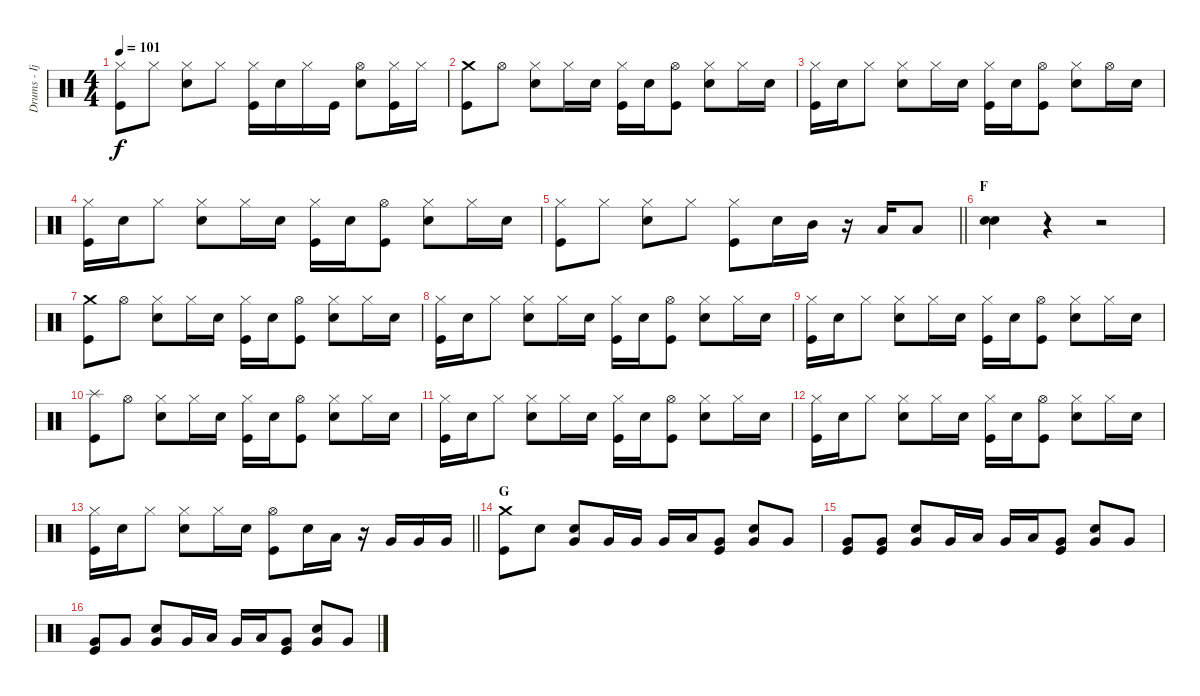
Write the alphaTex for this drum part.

\track ("Drums - Ijichi" "Drums - Ij") {instrument percussion}
\staff {score}
\articulation defaults
\ts (4 4)
\tempo 101
\clef neutral
\ks c
("Hi-Hat (closed)" "Kick (hit)").8{dy f} "Hi-Hat (closed)".8 ("Hi-Hat (closed)" "Electric Snare (hit)").8 "Hi-Hat (closed)".8 ("Hi-Hat (closed)" "Kick (hit)").16 "Electric Snare (hit)".16 "Hi-Hat (closed)".16 "Kick (hit)".16 ("Hi-Hat (open)" "Electric Snare (hit)").8 ("Hi-Hat (closed)" "Kick (hit)").16 "Hi-Hat (closed)".16 |
("Crash medium (hit)" "Kick (hit)").8 "Hi-Hat (open)".8 ("Hi-Hat (closed)" "Electric Snare (hit)").8 "Hi-Hat (closed)".16 "Electric Snare (hit)".16 ("Hi-Hat (closed)" "Kick (hit)").16 "Electric Snare (hit)".16 ("Hi-Hat (open)" "Kick (hit)").8 ("Hi-Hat (closed)" "Electric Snare (hit)").8 "Hi-Hat (closed)".16 "Electric Snare (hit)".16 |
("Hi-Hat (closed)" "Kick (hit)").16 "Electric Snare (hit)".16 "Hi-Hat (closed)".8 ("Hi-Hat (closed)" "Electric Snare (hit)").8 "Hi-Hat (closed)".16 "Electric Snare (hit)".16 ("Hi-Hat (closed)" "Kick (hit)").16 "Electric Snare (hit)".16 ("Hi-Hat (open)" "Kick (hit)").8 ("Hi-Hat (closed)" "Electric Snare (hit)").8 "Hi-Hat (open)".16 "Electric Snare (hit)".16 |
("Hi-Hat (closed)" "Kick (hit)").16 "Electric Snare (hit)".16 "Hi-Hat (closed)".8 ("Hi-Hat (closed)" "Electric Snare (hit)").8 "Hi-Hat (closed)".16 "Electric Snare (hit)".16 ("Hi-Hat (closed)" "Kick (hit)").16 "Electric Snare (hit)".16 ("Hi-Hat (open)" "Kick (hit)").8 ("Hi-Hat (closed)" "Electric Snare (hit)").8 "Hi-Hat (closed)".16 "Electric Snare (hit)".16 |
\barLineRight lightlight
("Hi-Hat (closed)" "Kick (hit)").8 "Hi-Hat (closed)".8 ("Hi-Hat (closed)" "Electric Snare (hit)").8 "Hi-Hat (closed)".8 ("Hi-Hat (closed)" "Kick (hit)").8 "Electric Snare (hit)".16 "Mid Tom (hit)".16 r.16 "Low Tom (hit)".16 "Low Tom (hit)".8 |
\section ("" "F")
("Electric Snare (hit)" "Electric Snare (hit)").4 r.4 r.2 |
("Crash medium (hit)" "Kick (hit)").8 "Hi-Hat (open)".8 ("Hi-Hat (closed)" "Electric Snare (hit)").8 "Hi-Hat (closed)".16 "Electric Snare (hit)".16 ("Hi-Hat (closed)" "Kick (hit)").16 "Electric Snare (hit)".16 ("Hi-Hat (open)" "Kick (hit)").8 ("Hi-Hat (closed)" "Electric Snare (hit)").8 "Hi-Hat (closed)".16 "Electric Snare (hit)".16 |
("Hi-Hat (closed)" "Kick (hit)").16 "Electric Snare (hit)".16 "Hi-Hat (closed)".8 ("Hi-Hat (closed)" "Electric Snare (hit)").8 "Hi-Hat (closed)".16 "Electric Snare (hit)".16 ("Hi-Hat (closed)" "Kick (hit)").16 "Electric Snare (hit)".16 ("Hi-Hat (open)" "Kick (hit)").8 ("Hi-Hat (closed)" "Electric Snare (hit)").8 "Hi-Hat (closed)".16 "Electric Snare (hit)".16 |
("Hi-Hat (closed)" "Kick (hit)").16 "Electric Snare (hit)".16 "Hi-Hat (closed)".8 ("Hi-Hat (closed)" "Electric Snare (hit)").8 "Hi-Hat (closed)".16 "Electric Snare (hit)".16 ("Hi-Hat (closed)" "Kick (hit)").16 "Electric Snare (hit)".16 ("Hi-Hat (open)" "Kick (hit)").8 ("Hi-Hat (closed)" "Electric Snare (hit)").8 "Hi-Hat (closed)".16 "Electric Snare (hit)".16 |
("Splash (hit)" "Kick (hit)").8 "Hi-Hat (open)".8 ("Hi-Hat (closed)" "Electric Snare (hit)").8 "Hi-Hat (closed)".16 "Electric Snare (hit)".16 ("Hi-Hat (closed)" "Kick (hit)").16 "Electric Snare (hit)".16 ("Hi-Hat (open)" "Kick (hit)").8 ("Hi-Hat (closed)" "Electric Snare (hit)").8 "Hi-Hat (closed)".16 "Electric Snare (hit)".16 |
("Hi-Hat (closed)" "Kick (hit)").16 "Electric Snare (hit)".16 "Hi-Hat (closed)".8 ("Hi-Hat (closed)" "Electric Snare (hit)").8 "Hi-Hat (closed)".16 "Electric Snare (hit)".16 ("Hi-Hat (closed)" "Kick (hit)").16 "Electric Snare (hit)".16 ("Hi-Hat (open)" "Kick (hit)").8 ("Hi-Hat (closed)" "Electric Snare (hit)").8 "Hi-Hat (closed)".16 "Electric Snare (hit)".16 |
("Hi-Hat (closed)" "Kick (hit)").16 "Electric Snare (hit)".16 "Hi-Hat (closed)".8 ("Hi-Hat (closed)" "Electric Snare (hit)").8 "Hi-Hat (closed)".16 "Electric Snare (hit)".16 ("Hi-Hat (closed)" "Kick (hit)").16 "Electric Snare (hit)".16 ("Hi-Hat (open)" "Kick (hit)").8 ("Hi-Hat (closed)" "Electric Snare (hit)").8 "Hi-Hat (closed)".16 "Electric Snare (hit)".16 |
\barLineRight lightlight
("Hi-Hat (closed)" "Kick (hit)").16 "Electric Snare (hit)".16 "Hi-Hat (closed)".8 ("Hi-Hat (closed)" "Electric Snare (hit)").8 "Hi-Hat (closed)".16 "Electric Snare (hit)".16 ("Hi-Hat (open)" "Kick (hit)").8 "Electric Snare (hit)".16 "Low Tom (hit)".16 r.16 "Very Low Tom (hit)".16 "Very Low Tom (hit)".16 "Very Low Tom (hit)".16 |
\section ("" "G")
("Crash medium (hit)" "Kick (hit)").8 "Electric Snare (hit)".8 ("Electric Snare (hit)" "Very Low Tom (hit)").8 "Very Low Tom (hit)".16 "Very Low Tom (hit)".16 "Very Low Tom (hit)".16 "Low Tom (hit)".16 ("Very Low Tom (hit)" "Kick (hit)").8 ("Electric Snare (hit)" "Very Low Tom (hit)").8 "Very Low Tom (hit)".8 |
("Very Low Tom (hit)" "Kick (hit)").8 ("Very Low Tom (hit)" "Kick (hit)").8 ("Electric Snare (hit)" "Very Low Tom (hit)").8 "Very Low Tom (hit)".16 "Low Tom (hit)".16 "Very Low Tom (hit)".16 "Low Tom (hit)".16 ("Very Low Tom (hit)" "Kick (hit)").8 ("Electric Snare (hit)" "Very Low Tom (hit)").8 "Very Low Tom (hit)".8 |
("Very Low Tom (hit)" "Kick (hit)").8 "Very Low Tom (hit)".8 ("Electric Snare (hit)" "Very Low Tom (hit)").8 "Very Low Tom (hit)".16 "Low Tom (hit)".16 "Very Low Tom (hit)".16 "Low Tom (hit)".16 ("Very Low Tom (hit)" "Kick (hit)").8 ("Electric Snare (hit)" "Very Low Tom (hit)").8 "Very Low Tom (hit)".8
